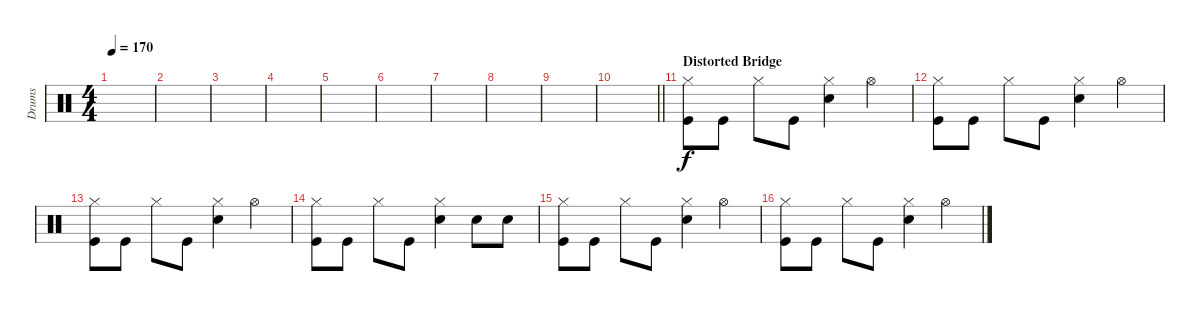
\track ("Drums" "Drums") {instrument percussion}
\staff {score}
\articulation defaults
\ts (4 4)
\tempo 170
\clef neutral
\ks c
|
|
|
|
|
|
|
|
|
\barLineRight lightlight
|
\section ("" "Distorted Bridge")
("Hi-Hat (closed)" "Kick (hit)").8 "Kick (hit)".8 "Hi-Hat (closed)".8 "Kick (hit)".8 ("Hi-Hat (closed)" "Snare (hit) 2").4 "Hi-Hat (open)".4 |
("Hi-Hat (closed)" "Kick (hit)").8 "Kick (hit)".8 "Hi-Hat (closed)".8 "Kick (hit)".8 ("Hi-Hat (closed)" "Snare (hit) 2").4 "Hi-Hat (open)".4 |
("Hi-Hat (closed)" "Kick (hit)").8 "Kick (hit)".8 "Hi-Hat (closed)".8 "Kick (hit)".8 ("Hi-Hat (closed)" "Snare (hit) 2").4 "Hi-Hat (open)".4 |
("Hi-Hat (closed)" "Kick (hit)").8 "Kick (hit)".8 "Hi-Hat (closed)".8 "Kick (hit)".8 ("Hi-Hat (closed)" "Snare (hit) 2").4 "Snare (hit) 2".8 "Snare (hit) 2".8 |
("Hi-Hat (closed)" "Kick (hit)").8 "Kick (hit)".8 "Hi-Hat (closed)".8 "Kick (hit)".8 ("Hi-Hat (closed)" "Snare (hit) 2").4 "Hi-Hat (open)".4 |
("Hi-Hat (closed)" "Kick (hit)").8 "Kick (hit)".8 "Hi-Hat (closed)".8 "Kick (hit)".8 ("Hi-Hat (closed)" "Snare (hit) 2").4 "Hi-Hat (open)".4
